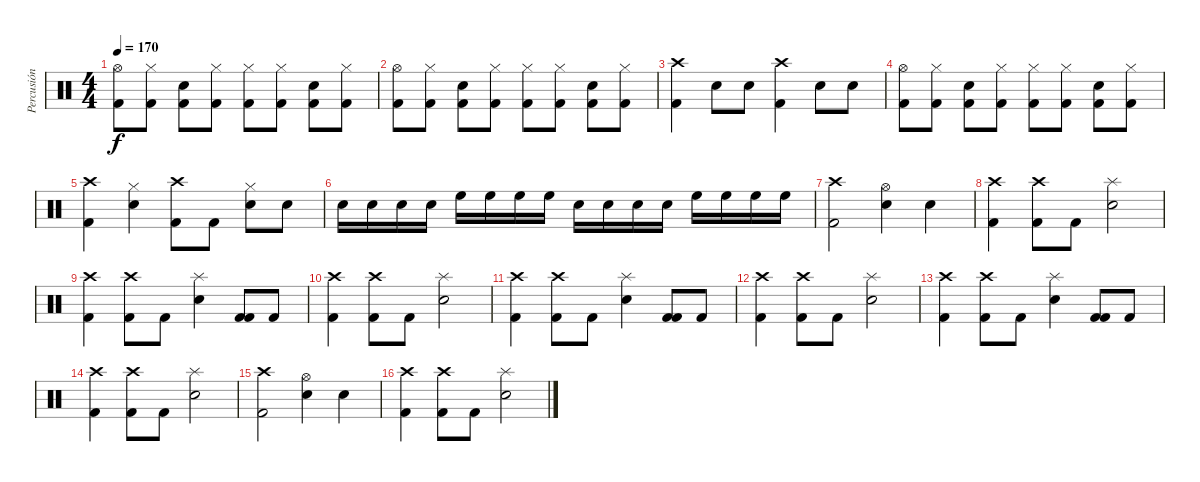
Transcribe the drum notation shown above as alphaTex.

\track ("Percusión" "Percusión") {instrument percussion}
\staff {score}
\articulation defaults
\ts (4 4)
\tempo 170
\clef neutral
\ks c
("Kick (hit) 2" "Hi-Hat (open)").8{dy f} ("Kick (hit) 2" "Hi-Hat (closed)").8 ("Kick (hit) 2" "Snare (hit) 2").8 ("Kick (hit) 2" "Hi-Hat (closed)").8 ("Kick (hit) 2" "Hi-Hat (closed)").8 ("Kick (hit) 2" "Hi-Hat (closed)").8 ("Kick (hit) 2" "Snare (hit) 2").8 ("Kick (hit) 2" "Hi-Hat (closed)").8 |
("Kick (hit) 2" "Hi-Hat (open)").8 ("Kick (hit) 2" "Hi-Hat (closed)").8 ("Kick (hit) 2" "Snare (hit) 2").8 ("Kick (hit) 2" "Hi-Hat (closed)").8 ("Kick (hit) 2" "Hi-Hat (closed)").8 ("Kick (hit) 2" "Hi-Hat (closed)").8 ("Kick (hit) 2" "Snare (hit) 2").8 ("Kick (hit) 2" "Hi-Hat (closed)").8 |
("Kick (hit) 2" "Crash high (hit)").4 "Snare (hit) 2".8 "Snare (hit) 2".8 ("Kick (hit) 2" "Crash high (hit)").4 "Snare (hit) 2".8 "Snare (hit) 2".8 |
("Kick (hit) 2" "Hi-Hat (open)").8 ("Kick (hit) 2" "Hi-Hat (closed)").8 ("Kick (hit) 2" "Snare (hit) 2").8 ("Kick (hit) 2" "Hi-Hat (closed)").8 ("Kick (hit) 2" "Hi-Hat (closed)").8 ("Kick (hit) 2" "Hi-Hat (closed)").8 ("Kick (hit) 2" "Snare (hit) 2").8 ("Kick (hit) 2" "Hi-Hat (closed)").8 |
("Kick (hit) 2" "Crash high (hit)").4 ("Snare (hit) 2" "Hi-Hat (closed)").4 ("Kick (hit) 2" "Crash high (hit)").8 "Kick (hit) 2".8 ("Snare (hit) 2" "Hi-Hat (closed)").8 "Snare (hit) 2".8 |
"Snare (hit) 2".16 "Snare (hit) 2".16 "Snare (hit) 2".16 "Snare (hit) 2".16 "High Floor Tom (hit)".16 "High Floor Tom (hit)".16 "High Floor Tom (hit)".16 "High Floor Tom (hit)".16 "Snare (hit) 2".16 "Snare (hit) 2".16 "Snare (hit) 2".16 "Snare (hit) 2".16 "High Floor Tom (hit)".16 "High Floor Tom (hit)".16 "High Floor Tom (hit)".16 "High Floor Tom (hit)".16 |
("Kick (hit) 2" "Crash high (hit)").2 ("Snare (hit) 2" "Hi-Hat (open)").4 "Snare (hit) 2".4 |
("Kick (hit) 2" "Crash high (hit)").4 ("Kick (hit) 2" "Crash high (hit)").8 "Kick (hit) 2".8 ("Splash (hit)" "Snare (hit) 2").2 |
("Kick (hit) 2" "Crash high (hit)").4 ("Kick (hit) 2" "Crash high (hit)").8 "Kick (hit) 2".8 ("Splash (hit)" "Snare (hit) 2").4 ("Kick (hit) 2" "Kick (hit) 2").8 "Kick (hit) 2".8 |
("Kick (hit) 2" "Crash high (hit)").4 ("Kick (hit) 2" "Crash high (hit)").8 "Kick (hit) 2".8 ("Splash (hit)" "Snare (hit) 2").2 |
("Kick (hit) 2" "Crash high (hit)").4 ("Kick (hit) 2" "Crash high (hit)").8 "Kick (hit) 2".8 ("Splash (hit)" "Snare (hit) 2").4 ("Kick (hit) 2" "Kick (hit) 2").8 "Kick (hit) 2".8 |
("Kick (hit) 2" "Crash high (hit)").4 ("Kick (hit) 2" "Crash high (hit)").8 "Kick (hit) 2".8 ("Splash (hit)" "Snare (hit) 2").2 |
("Kick (hit) 2" "Crash high (hit)").4 ("Kick (hit) 2" "Crash high (hit)").8 "Kick (hit) 2".8 ("Splash (hit)" "Snare (hit) 2").4 ("Kick (hit) 2" "Kick (hit) 2").8 "Kick (hit) 2".8 |
("Kick (hit) 2" "Crash high (hit)").4 ("Kick (hit) 2" "Crash high (hit)").8 "Kick (hit) 2".8 ("Splash (hit)" "Snare (hit) 2").2 |
("Kick (hit) 2" "Crash high (hit)").2 ("Snare (hit) 2" "Hi-Hat (open)").4 "Snare (hit) 2".4 |
("Kick (hit) 2" "Crash high (hit)").4 ("Kick (hit) 2" "Crash high (hit)").8 "Kick (hit) 2".8 ("Splash (hit)" "Snare (hit) 2").2
